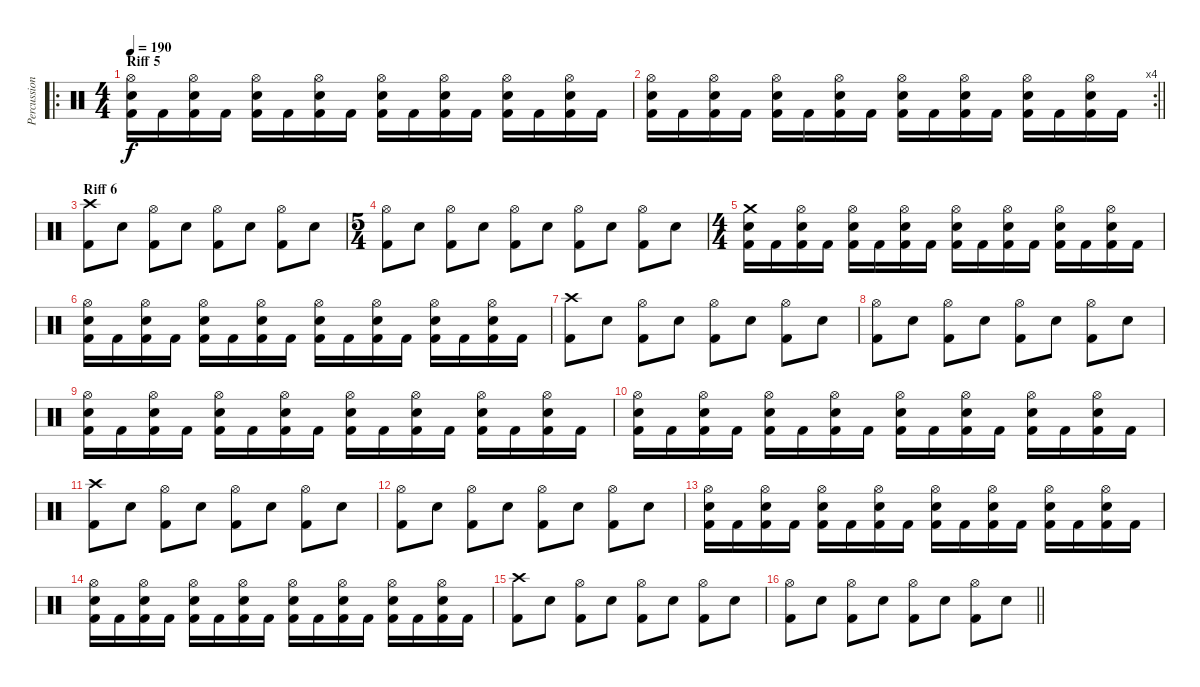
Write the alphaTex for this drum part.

\track ("Percussion" "Percussion") {instrument percussion}
\staff {score}
\articulation defaults
\ro
\ts (4 4)
\section ("" "Riff 5")
\tempo 190
\clef neutral
\ks c
("Hi-Hat (open)" "Electric Snare (hit)" "Kick (hit) 2").16{dy f} "Kick (hit) 2".16 ("Hi-Hat (open)" "Electric Snare (hit)" "Kick (hit) 2").16 "Kick (hit) 2".16 ("Hi-Hat (open)" "Electric Snare (hit)" "Kick (hit) 2").16 "Kick (hit) 2".16 ("Hi-Hat (open)" "Electric Snare (hit)" "Kick (hit) 2").16 "Kick (hit) 2".16 ("Hi-Hat (open)" "Electric Snare (hit)" "Kick (hit) 2").16 "Kick (hit) 2".16 ("Hi-Hat (open)" "Electric Snare (hit)" "Kick (hit) 2").16 "Kick (hit) 2".16 ("Hi-Hat (open)" "Electric Snare (hit)" "Kick (hit) 2").16 "Kick (hit) 2".16 ("Hi-Hat (open)" "Electric Snare (hit)" "Kick (hit) 2").16 "Kick (hit) 2".16 |
\rc 4
\barLineRight lightlight
("Hi-Hat (open)" "Electric Snare (hit)" "Kick (hit) 2").16 "Kick (hit) 2".16 ("Hi-Hat (open)" "Electric Snare (hit)" "Kick (hit) 2").16 "Kick (hit) 2".16 ("Hi-Hat (open)" "Electric Snare (hit)" "Kick (hit) 2").16 "Kick (hit) 2".16 ("Hi-Hat (open)" "Electric Snare (hit)" "Kick (hit) 2").16 "Kick (hit) 2".16 ("Hi-Hat (open)" "Electric Snare (hit)" "Kick (hit) 2").16 "Kick (hit) 2".16 ("Hi-Hat (open)" "Electric Snare (hit)" "Kick (hit) 2").16 "Kick (hit) 2".16 ("Hi-Hat (open)" "Electric Snare (hit)" "Kick (hit) 2").16 "Kick (hit) 2".16 ("Hi-Hat (open)" "Electric Snare (hit)" "Kick (hit) 2").16 "Kick (hit) 2".16 |
\section ("" "Riff 6")
("Crash high (hit)" "Kick (hit) 2").8 "Electric Snare (hit)".8 ("Hi-Hat (open)" "Kick (hit) 2").8 "Electric Snare (hit)".8 ("Hi-Hat (open)" "Kick (hit) 2").8 "Electric Snare (hit)".8 ("Hi-Hat (open)" "Kick (hit) 2").8 "Electric Snare (hit)".8 |
\ts (5 4)
("Hi-Hat (open)" "Kick (hit) 2").8 "Electric Snare (hit)".8 ("Hi-Hat (open)" "Kick (hit) 2").8 "Electric Snare (hit)".8 ("Hi-Hat (open)" "Kick (hit) 2").8 "Electric Snare (hit)".8 ("Hi-Hat (open)" "Kick (hit) 2").8 "Electric Snare (hit)".8 ("Hi-Hat (open)" "Kick (hit) 2").8 "Electric Snare (hit)".8 |
\ts (4 4)
("Crash medium (hit)" "Electric Snare (hit)" "Kick (hit) 2").16 "Kick (hit) 2".16 ("Hi-Hat (open)" "Electric Snare (hit)" "Kick (hit) 2").16 "Kick (hit) 2".16 ("Hi-Hat (open)" "Electric Snare (hit)" "Kick (hit) 2").16 "Kick (hit) 2".16 ("Hi-Hat (open)" "Electric Snare (hit)" "Kick (hit) 2").16 "Kick (hit) 2".16 ("Hi-Hat (open)" "Electric Snare (hit)" "Kick (hit) 2").16 "Kick (hit) 2".16 ("Hi-Hat (open)" "Electric Snare (hit)" "Kick (hit) 2").16 "Kick (hit) 2".16 ("Hi-Hat (open)" "Electric Snare (hit)" "Kick (hit) 2").16 "Kick (hit) 2".16 ("Hi-Hat (open)" "Electric Snare (hit)" "Kick (hit) 2").16 "Kick (hit) 2".16 |
("Hi-Hat (open)" "Electric Snare (hit)" "Kick (hit) 2").16 "Kick (hit) 2".16 ("Hi-Hat (open)" "Electric Snare (hit)" "Kick (hit) 2").16 "Kick (hit) 2".16 ("Hi-Hat (open)" "Electric Snare (hit)" "Kick (hit) 2").16 "Kick (hit) 2".16 ("Hi-Hat (open)" "Electric Snare (hit)" "Kick (hit) 2").16 "Kick (hit) 2".16 ("Hi-Hat (open)" "Electric Snare (hit)" "Kick (hit) 2").16 "Kick (hit) 2".16 ("Hi-Hat (open)" "Electric Snare (hit)" "Kick (hit) 2").16 "Kick (hit) 2".16 ("Hi-Hat (open)" "Electric Snare (hit)" "Kick (hit) 2").16 "Kick (hit) 2".16 ("Hi-Hat (open)" "Electric Snare (hit)" "Kick (hit) 2").16 "Kick (hit) 2".16 |
("Crash high (hit)" "Kick (hit) 2").8 "Electric Snare (hit)".8 ("Hi-Hat (open)" "Kick (hit) 2").8 "Electric Snare (hit)".8 ("Hi-Hat (open)" "Kick (hit) 2").8 "Electric Snare (hit)".8 ("Hi-Hat (open)" "Kick (hit) 2").8 "Electric Snare (hit)".8 |
("Hi-Hat (open)" "Kick (hit) 2").8 "Electric Snare (hit)".8 ("Hi-Hat (open)" "Kick (hit) 2").8 "Electric Snare (hit)".8 ("Hi-Hat (open)" "Kick (hit) 2").8 "Electric Snare (hit)".8 ("Hi-Hat (open)" "Kick (hit) 2").8 "Electric Snare (hit)".8 |
("Hi-Hat (open)" "Electric Snare (hit)" "Kick (hit) 2").16 "Kick (hit) 2".16 ("Hi-Hat (open)" "Electric Snare (hit)" "Kick (hit) 2").16 "Kick (hit) 2".16 ("Hi-Hat (open)" "Electric Snare (hit)" "Kick (hit) 2").16 "Kick (hit) 2".16 ("Hi-Hat (open)" "Electric Snare (hit)" "Kick (hit) 2").16 "Kick (hit) 2".16 ("Hi-Hat (open)" "Electric Snare (hit)" "Kick (hit) 2").16 "Kick (hit) 2".16 ("Hi-Hat (open)" "Electric Snare (hit)" "Kick (hit) 2").16 "Kick (hit) 2".16 ("Hi-Hat (open)" "Electric Snare (hit)" "Kick (hit) 2").16 "Kick (hit) 2".16 ("Hi-Hat (open)" "Electric Snare (hit)" "Kick (hit) 2").16 "Kick (hit) 2".16 |
("Hi-Hat (open)" "Electric Snare (hit)" "Kick (hit) 2").16 "Kick (hit) 2".16 ("Hi-Hat (open)" "Electric Snare (hit)" "Kick (hit) 2").16 "Kick (hit) 2".16 ("Hi-Hat (open)" "Electric Snare (hit)" "Kick (hit) 2").16 "Kick (hit) 2".16 ("Hi-Hat (open)" "Electric Snare (hit)" "Kick (hit) 2").16 "Kick (hit) 2".16 ("Hi-Hat (open)" "Electric Snare (hit)" "Kick (hit) 2").16 "Kick (hit) 2".16 ("Hi-Hat (open)" "Electric Snare (hit)" "Kick (hit) 2").16 "Kick (hit) 2".16 ("Hi-Hat (open)" "Electric Snare (hit)" "Kick (hit) 2").16 "Kick (hit) 2".16 ("Hi-Hat (open)" "Electric Snare (hit)" "Kick (hit) 2").16 "Kick (hit) 2".16 |
("Crash high (hit)" "Kick (hit) 2").8 "Electric Snare (hit)".8 ("Hi-Hat (open)" "Kick (hit) 2").8 "Electric Snare (hit)".8 ("Hi-Hat (open)" "Kick (hit) 2").8 "Electric Snare (hit)".8 ("Hi-Hat (open)" "Kick (hit) 2").8 "Electric Snare (hit)".8 |
("Hi-Hat (open)" "Kick (hit) 2").8 "Electric Snare (hit)".8 ("Hi-Hat (open)" "Kick (hit) 2").8 "Electric Snare (hit)".8 ("Hi-Hat (open)" "Kick (hit) 2").8 "Electric Snare (hit)".8 ("Hi-Hat (open)" "Kick (hit) 2").8 "Electric Snare (hit)".8 |
("Hi-Hat (open)" "Electric Snare (hit)" "Kick (hit) 2").16 "Kick (hit) 2".16 ("Hi-Hat (open)" "Electric Snare (hit)" "Kick (hit) 2").16 "Kick (hit) 2".16 ("Hi-Hat (open)" "Electric Snare (hit)" "Kick (hit) 2").16 "Kick (hit) 2".16 ("Hi-Hat (open)" "Electric Snare (hit)" "Kick (hit) 2").16 "Kick (hit) 2".16 ("Hi-Hat (open)" "Electric Snare (hit)" "Kick (hit) 2").16 "Kick (hit) 2".16 ("Hi-Hat (open)" "Electric Snare (hit)" "Kick (hit) 2").16 "Kick (hit) 2".16 ("Hi-Hat (open)" "Electric Snare (hit)" "Kick (hit) 2").16 "Kick (hit) 2".16 ("Hi-Hat (open)" "Electric Snare (hit)" "Kick (hit) 2").16 "Kick (hit) 2".16 |
("Hi-Hat (open)" "Electric Snare (hit)" "Kick (hit) 2").16 "Kick (hit) 2".16 ("Hi-Hat (open)" "Electric Snare (hit)" "Kick (hit) 2").16 "Kick (hit) 2".16 ("Hi-Hat (open)" "Electric Snare (hit)" "Kick (hit) 2").16 "Kick (hit) 2".16 ("Hi-Hat (open)" "Electric Snare (hit)" "Kick (hit) 2").16 "Kick (hit) 2".16 ("Hi-Hat (open)" "Electric Snare (hit)" "Kick (hit) 2").16 "Kick (hit) 2".16 ("Hi-Hat (open)" "Electric Snare (hit)" "Kick (hit) 2").16 "Kick (hit) 2".16 ("Hi-Hat (open)" "Electric Snare (hit)" "Kick (hit) 2").16 "Kick (hit) 2".16 ("Hi-Hat (open)" "Electric Snare (hit)" "Kick (hit) 2").16 "Kick (hit) 2".16 |
("Crash high (hit)" "Kick (hit) 2").8 "Electric Snare (hit)".8 ("Hi-Hat (open)" "Kick (hit) 2").8 "Electric Snare (hit)".8 ("Hi-Hat (open)" "Kick (hit) 2").8 "Electric Snare (hit)".8 ("Hi-Hat (open)" "Kick (hit) 2").8 "Electric Snare (hit)".8 |
\barLineRight lightlight
("Hi-Hat (open)" "Kick (hit) 2").8 "Electric Snare (hit)".8 ("Hi-Hat (open)" "Kick (hit) 2").8 "Electric Snare (hit)".8 ("Hi-Hat (open)" "Kick (hit) 2").8 "Electric Snare (hit)".8 ("Hi-Hat (open)" "Kick (hit) 2").8 "Electric Snare (hit)".8
